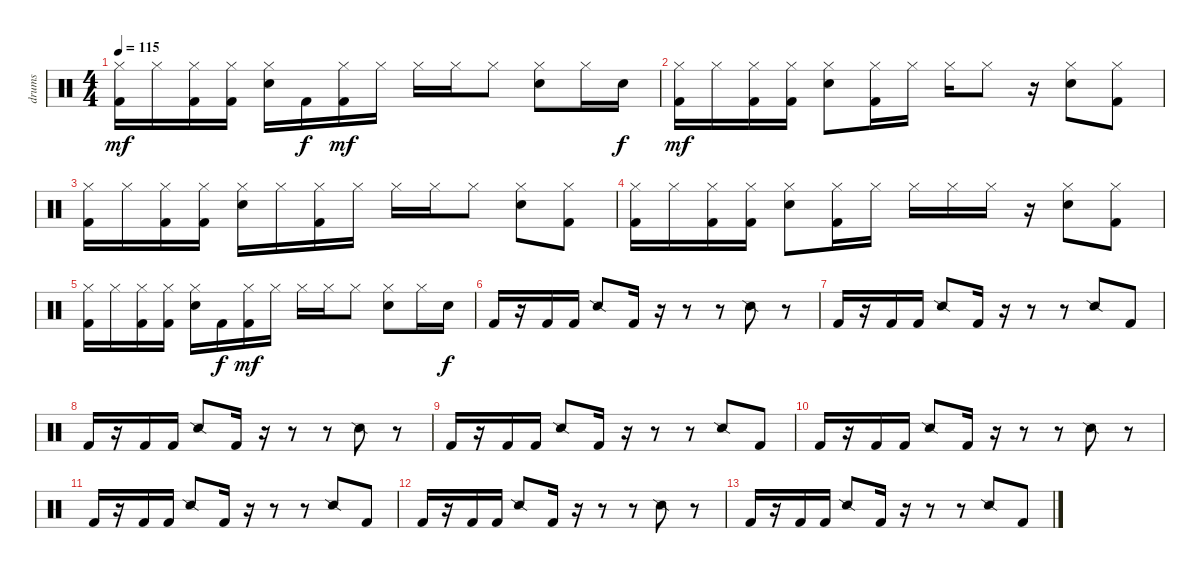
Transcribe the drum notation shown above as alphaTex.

\track ("drums" "drums") {instrument percussion}
\staff {score}
\articulation defaults
\ts (4 4)
\tempo 115
\clef neutral
\ks c
("Hi-Hat (closed)" "Kick (hit) 2").16{dy mf} "Hi-Hat (closed)".16 ("Hi-Hat (closed)" "Kick (hit) 2").16 ("Hi-Hat (closed)" "Kick (hit) 2").16 ("Hi-Hat (closed)" "Snare (hit) 2").16 "Kick (hit) 2".16{dy f} ("Hi-Hat (closed)" "Kick (hit) 2").16{dy mf} "Hi-Hat (closed)".16 "Hi-Hat (closed)".16 "Hi-Hat (closed)".16 "Hi-Hat (closed)".8 ("Hi-Hat (closed)" "Snare (hit) 2").8 "Hi-Hat (closed)".16 "Snare (hit) 2".16{dy f} |
("Hi-Hat (closed)" "Kick (hit) 2").16{dy mf} "Hi-Hat (closed)".16 ("Hi-Hat (closed)" "Kick (hit) 2").16 ("Hi-Hat (closed)" "Kick (hit) 2").16 ("Hi-Hat (closed)" "Snare (hit) 2").8 ("Hi-Hat (closed)" "Kick (hit) 2").16 "Hi-Hat (closed)".16 "Hi-Hat (closed)".16 "Hi-Hat (closed)".8 r.16 ("Hi-Hat (closed)" "Snare (hit) 2").8 ("Hi-Hat (closed)" "Kick (hit) 2").8 |
("Hi-Hat (closed)" "Kick (hit) 2").16 "Hi-Hat (closed)".16 ("Hi-Hat (closed)" "Kick (hit) 2").16 ("Hi-Hat (closed)" "Kick (hit) 2").16 ("Hi-Hat (closed)" "Snare (hit) 2").16 "Hi-Hat (closed)".16 ("Hi-Hat (closed)" "Kick (hit) 2").16 "Hi-Hat (closed)".16 "Hi-Hat (closed)".16 "Hi-Hat (closed)".16 "Hi-Hat (closed)".8 ("Hi-Hat (closed)" "Snare (hit) 2").8 ("Hi-Hat (closed)" "Kick (hit) 2").8 |
("Hi-Hat (closed)" "Kick (hit) 2").16 "Hi-Hat (closed)".16 ("Hi-Hat (closed)" "Kick (hit) 2").16 ("Hi-Hat (closed)" "Kick (hit) 2").16 ("Hi-Hat (closed)" "Snare (hit) 2").8 ("Hi-Hat (closed)" "Kick (hit) 2").16 "Hi-Hat (closed)".16 "Hi-Hat (closed)".16 "Hi-Hat (closed)".16 "Hi-Hat (closed)".16 r.16 ("Hi-Hat (closed)" "Snare (hit) 2").8 ("Hi-Hat (closed)" "Kick (hit) 2").8 |
("Hi-Hat (closed)" "Kick (hit) 2").16 "Hi-Hat (closed)".16 ("Hi-Hat (closed)" "Kick (hit) 2").16 ("Hi-Hat (closed)" "Kick (hit) 2").16 ("Hi-Hat (closed)" "Snare (hit) 2").16 "Kick (hit) 2".16{dy f} ("Hi-Hat (closed)" "Kick (hit) 2").16{dy mf} "Hi-Hat (closed)".16 "Hi-Hat (closed)".16 "Hi-Hat (closed)".16 "Hi-Hat (closed)".8 ("Hi-Hat (closed)" "Snare (hit) 2").8 "Hi-Hat (closed)".16 "Snare (hit) 2".16{dy f} |
"Kick (hit) 2".16 r.16 "Kick (hit) 2".16 "Kick (hit) 2".16 "Snare (side stick) 2".8 "Kick (hit) 2".16 r.16 r.8 r.8 "Snare (side stick) 2".8 r.8 |
"Kick (hit) 2".16 r.16 "Kick (hit) 2".16 "Kick (hit) 2".16 "Snare (side stick) 2".8 "Kick (hit) 2".16 r.16 r.8 r.8 "Snare (side stick) 2".8 "Kick (hit) 2".8 |
"Kick (hit) 2".16 r.16 "Kick (hit) 2".16 "Kick (hit) 2".16 "Snare (side stick) 2".8 "Kick (hit) 2".16 r.16 r.8 r.8 "Snare (side stick) 2".8 r.8 |
"Kick (hit) 2".16 r.16 "Kick (hit) 2".16 "Kick (hit) 2".16 "Snare (side stick) 2".8 "Kick (hit) 2".16 r.16 r.8 r.8 "Snare (side stick) 2".8 "Kick (hit) 2".8 |
"Kick (hit) 2".16 r.16 "Kick (hit) 2".16 "Kick (hit) 2".16 "Snare (side stick) 2".8 "Kick (hit) 2".16 r.16 r.8 r.8 "Snare (side stick) 2".8 r.8 |
"Kick (hit) 2".16 r.16 "Kick (hit) 2".16 "Kick (hit) 2".16 "Snare (side stick) 2".8 "Kick (hit) 2".16 r.16 r.8 r.8 "Snare (side stick) 2".8 "Kick (hit) 2".8 |
"Kick (hit) 2".16 r.16 "Kick (hit) 2".16 "Kick (hit) 2".16 "Snare (side stick) 2".8 "Kick (hit) 2".16 r.16 r.8 r.8 "Snare (side stick) 2".8 r.8 |
"Kick (hit) 2".16 r.16 "Kick (hit) 2".16 "Kick (hit) 2".16 "Snare (side stick) 2".8 "Kick (hit) 2".16 r.16 r.8 r.8 "Snare (side stick) 2".8 "Kick (hit) 2".8
